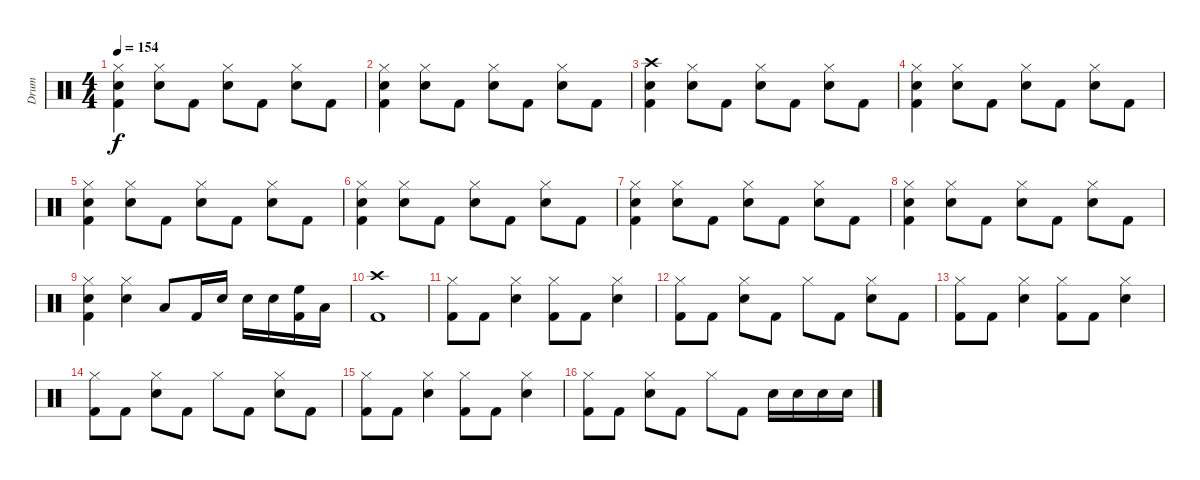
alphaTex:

\track ("Drum" "Drum") {instrument percussion}
\staff {score}
\articulation defaults
\ts (4 4)
\tempo 154
\clef neutral
\ks c
("Hi-Hat (closed)" "Electric Snare (hit)" "Kick (hit) 2").4{dy f} ("Hi-Hat (closed)" "Electric Snare (hit)").8 "Kick (hit) 2".8 ("Hi-Hat (closed)" "Electric Snare (hit)").8 "Kick (hit) 2".8 ("Hi-Hat (closed)" "Electric Snare (hit)").8 "Kick (hit) 2".8 |
("Hi-Hat (closed)" "Electric Snare (hit)" "Kick (hit) 2").4 ("Hi-Hat (closed)" "Electric Snare (hit)").8 "Kick (hit) 2".8 ("Hi-Hat (closed)" "Electric Snare (hit)").8 "Kick (hit) 2".8 ("Hi-Hat (closed)" "Electric Snare (hit)").8 "Kick (hit) 2".8 |
("Crash high (hit)" "Electric Snare (hit)" "Kick (hit) 2").4 ("Hi-Hat (closed)" "Electric Snare (hit)").8 "Kick (hit) 2".8 ("Hi-Hat (closed)" "Electric Snare (hit)").8 "Kick (hit) 2".8 ("Hi-Hat (closed)" "Electric Snare (hit)").8 "Kick (hit) 2".8 |
("Hi-Hat (closed)" "Electric Snare (hit)" "Kick (hit) 2").4 ("Hi-Hat (closed)" "Electric Snare (hit)").8 "Kick (hit) 2".8 ("Hi-Hat (closed)" "Electric Snare (hit)").8 "Kick (hit) 2".8 ("Hi-Hat (closed)" "Electric Snare (hit)").8 "Kick (hit) 2".8 |
("Hi-Hat (closed)" "Electric Snare (hit)" "Kick (hit) 2").4 ("Hi-Hat (closed)" "Electric Snare (hit)").8 "Kick (hit) 2".8 ("Hi-Hat (closed)" "Electric Snare (hit)").8 "Kick (hit) 2".8 ("Hi-Hat (closed)" "Electric Snare (hit)").8 "Kick (hit) 2".8 |
("Hi-Hat (closed)" "Electric Snare (hit)" "Kick (hit) 2").4 ("Hi-Hat (closed)" "Electric Snare (hit)").8 "Kick (hit) 2".8 ("Hi-Hat (closed)" "Electric Snare (hit)").8 "Kick (hit) 2".8 ("Hi-Hat (closed)" "Electric Snare (hit)").8 "Kick (hit) 2".8 |
("Hi-Hat (closed)" "Electric Snare (hit)" "Kick (hit) 2").4 ("Hi-Hat (closed)" "Electric Snare (hit)").8 "Kick (hit) 2".8 ("Hi-Hat (closed)" "Electric Snare (hit)").8 "Kick (hit) 2".8 ("Hi-Hat (closed)" "Electric Snare (hit)").8 "Kick (hit) 2".8 |
("Hi-Hat (closed)" "Electric Snare (hit)" "Kick (hit) 2").4 ("Hi-Hat (closed)" "Electric Snare (hit)").8 "Kick (hit) 2".8 ("Hi-Hat (closed)" "Electric Snare (hit)").8 "Kick (hit) 2".8 ("Hi-Hat (closed)" "Electric Snare (hit)").8 "Kick (hit) 2".8 |
("Hi-Hat (closed)" "Electric Snare (hit)" "Kick (hit) 2").4 ("Hi-Hat (closed)" "Electric Snare (hit)").4 "Low Tom (hit)".8 "Kick (hit) 2".16 "Electric Snare (hit)".16 "Electric Snare (hit)".16 "Electric Snare (hit)".16 ("High Floor Tom (hit)" "Kick (hit) 2").16 "Low Tom (hit)".16 |
("Crash high (hit)" "Kick (hit) 2").1 |
("Hi-Hat (closed)" "Kick (hit) 2").8 "Kick (hit) 2".8 ("Hi-Hat (closed)" "Electric Snare (hit)").4 ("Hi-Hat (closed)" "Kick (hit) 2").8 "Kick (hit) 2".8 ("Hi-Hat (closed)" "Electric Snare (hit)").4 |
("Hi-Hat (closed)" "Kick (hit) 2").8 "Kick (hit) 2".8 ("Hi-Hat (closed)" "Electric Snare (hit)").8 "Kick (hit) 2".8 "Hi-Hat (closed)".8 "Kick (hit) 2".8 ("Hi-Hat (closed)" "Electric Snare (hit)").8 "Kick (hit) 2".8 |
("Hi-Hat (closed)" "Kick (hit) 2").8 "Kick (hit) 2".8 ("Hi-Hat (closed)" "Electric Snare (hit)").4 ("Hi-Hat (closed)" "Kick (hit) 2").8 "Kick (hit) 2".8 ("Hi-Hat (closed)" "Electric Snare (hit)").4 |
("Hi-Hat (closed)" "Kick (hit) 2").8 "Kick (hit) 2".8 ("Hi-Hat (closed)" "Electric Snare (hit)").8 "Kick (hit) 2".8 "Hi-Hat (closed)".8 "Kick (hit) 2".8 ("Hi-Hat (closed)" "Electric Snare (hit)").8 "Kick (hit) 2".8 |
("Hi-Hat (closed)" "Kick (hit) 2").8 "Kick (hit) 2".8 ("Hi-Hat (closed)" "Electric Snare (hit)").4 ("Hi-Hat (closed)" "Kick (hit) 2").8 "Kick (hit) 2".8 ("Hi-Hat (closed)" "Electric Snare (hit)").4 |
("Hi-Hat (closed)" "Kick (hit) 2").8 "Kick (hit) 2".8 ("Hi-Hat (closed)" "Electric Snare (hit)").8 "Kick (hit) 2".8 "Hi-Hat (closed)".8 "Kick (hit) 2".8 "Electric Snare (hit)".16 "Electric Snare (hit)".16 "Electric Snare (hit)".16 "Electric Snare (hit)".16
